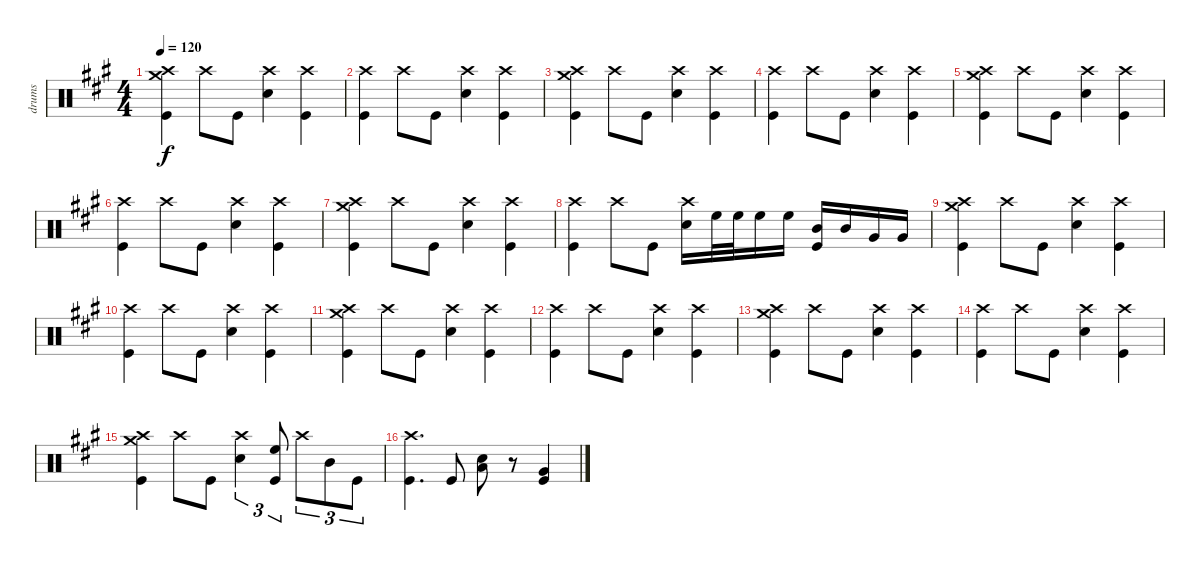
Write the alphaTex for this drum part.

\track ("drums" "drums") {instrument percussion}
\staff {score}
\articulation defaults
\ts (4 4)
\tempo 120
\clef neutral
\ks f#minor
("Kick (hit)" "Crash high (hit)" "Crash medium (hit)").4{dy f} "Crash high (hit)".8 "Kick (hit)".8 ("Snare (hit) 2" "Crash high (hit)").4 ("Crash high (hit)" "Kick (hit)").4 |
("Kick (hit)" "Crash high (hit)").4 "Crash high (hit)".8 "Kick (hit)".8 ("Snare (hit) 2" "Crash high (hit)").4 ("Crash high (hit)" "Kick (hit)").4 |
("Kick (hit)" "Crash high (hit)" "Crash medium (hit)").4 "Crash high (hit)".8 "Kick (hit)".8 ("Snare (hit) 2" "Crash high (hit)").4 ("Crash high (hit)" "Kick (hit)").4 |
("Kick (hit)" "Crash high (hit)").4 "Crash high (hit)".8 "Kick (hit)".8 ("Snare (hit) 2" "Crash high (hit)").4 ("Crash high (hit)" "Kick (hit)").4 |
("Kick (hit)" "Crash high (hit)" "Crash medium (hit)").4 "Crash high (hit)".8 "Kick (hit)".8 ("Snare (hit) 2" "Crash high (hit)").4 ("Crash high (hit)" "Kick (hit)").4 |
("Kick (hit)" "Crash high (hit)").4 "Crash high (hit)".8 "Kick (hit)".8 ("Snare (hit) 2" "Crash high (hit)").4 ("Crash high (hit)" "Kick (hit)").4 |
("Kick (hit)" "Crash high (hit)" "Crash medium (hit)").4 "Crash high (hit)".8 "Kick (hit)".8 ("Snare (hit) 2" "Crash high (hit)").4 ("Crash high (hit)" "Kick (hit)").4 |
("Kick (hit)" "Crash high (hit)").4 "Crash high (hit)".8 "Kick (hit)".8 ("Snare (hit) 2" "Crash high (hit)").16 "High Floor Tom (hit)".32 "High Floor Tom (hit)".32 "High Floor Tom (hit)".16 "High Floor Tom (hit)".16 ("Mid Tom (hit)" "Kick (hit)").16 "Mid Tom (hit)".16 "Very Low Tom (hit)".16 "Very Low Tom (hit)".16 |
("Kick (hit)" "Crash high (hit)" "Crash medium (hit)").4 "Crash high (hit)".8 "Kick (hit)".8 ("Snare (hit) 2" "Crash high (hit)").4 ("Crash high (hit)" "Kick (hit)").4 |
("Kick (hit)" "Crash high (hit)").4 "Crash high (hit)".8 "Kick (hit)".8 ("Snare (hit) 2" "Crash high (hit)").4 ("Crash high (hit)" "Kick (hit)").4 |
("Kick (hit)" "Crash high (hit)" "Crash medium (hit)").4 "Crash high (hit)".8 "Kick (hit)".8 ("Snare (hit) 2" "Crash high (hit)").4 ("Crash high (hit)" "Kick (hit)").4 |
("Kick (hit)" "Crash high (hit)").4 "Crash high (hit)".8 "Kick (hit)".8 ("Snare (hit) 2" "Crash high (hit)").4 ("Crash high (hit)" "Kick (hit)").4 |
("Kick (hit)" "Crash high (hit)" "Crash medium (hit)").4 "Crash high (hit)".8 "Kick (hit)".8 ("Snare (hit) 2" "Crash high (hit)").4 ("Crash high (hit)" "Kick (hit)").4 |
("Kick (hit)" "Crash high (hit)").4 "Crash high (hit)".8 "Kick (hit)".8 ("Snare (hit) 2" "Crash high (hit)").4 ("Crash high (hit)" "Kick (hit)").4 |
("Kick (hit)" "Crash high (hit)" "Crash medium (hit)").4 "Crash high (hit)".8 "Kick (hit)".8 ("Snare (hit) 2" "Crash high (hit)").4{tu (3 2)} ("High Floor Tom (hit)" "Kick (hit)").8{tu (3 2)} "Crash high (hit)".8{tu (3 2)} "Mid Tom (hit)".8{tu (3 2)} "Kick (hit)".8{tu (3 2)} |
("Kick (hit)" "Crash high (hit)").4{d} "Kick (hit)".8 ("Low Floor Tom (hit)" "Snare (hit) 2").8 r.8 ("Very Low Tom (hit)" "Kick (hit)").4
